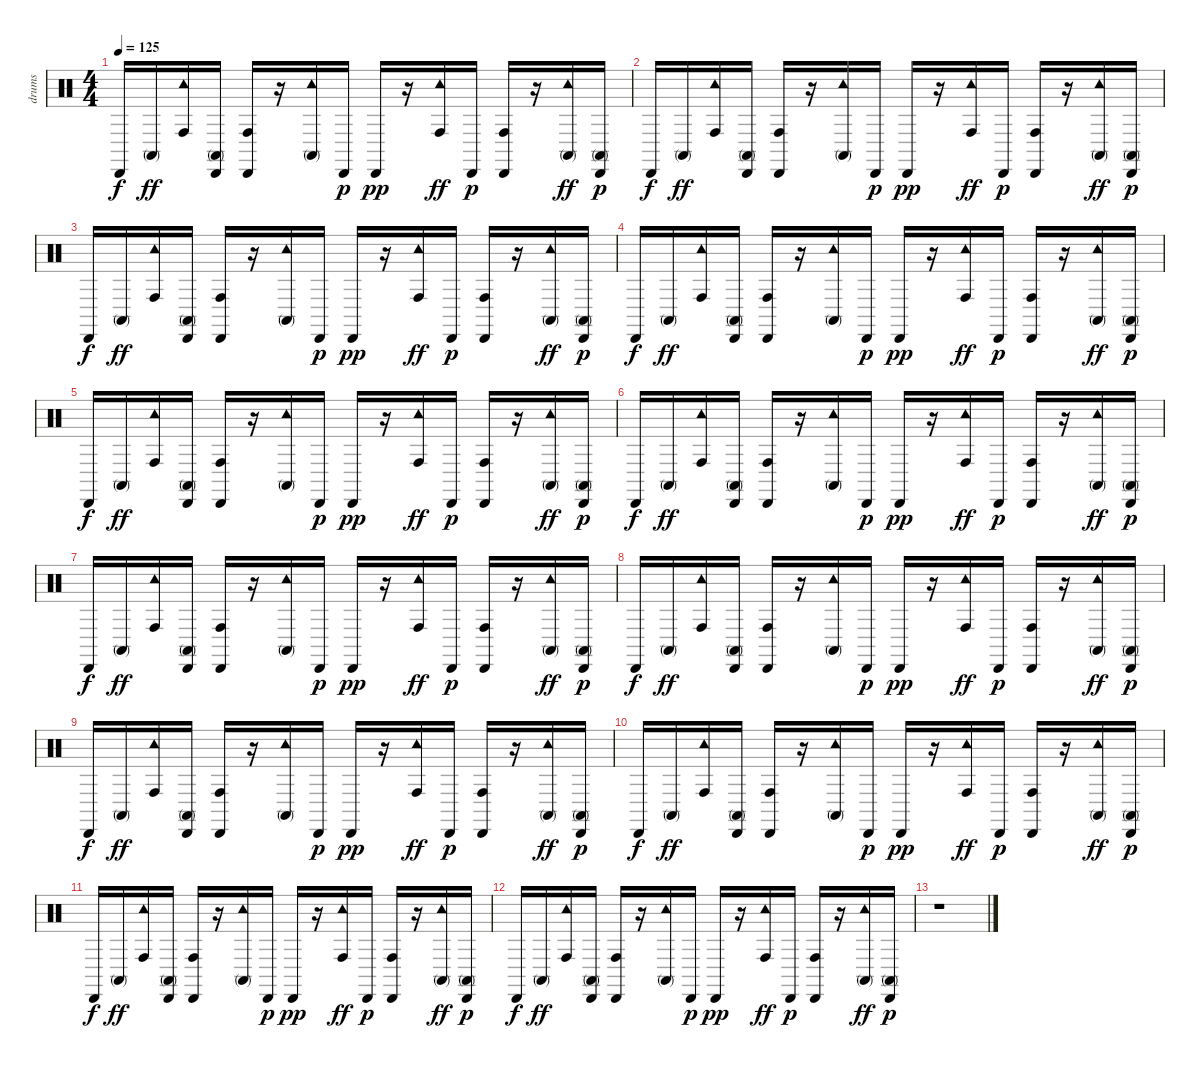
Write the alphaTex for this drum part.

\track ("drums" "drums") {instrument percussion}
\staff {score}
\articulation defaults
\ts (4 4)
\tempo 125
\clef neutral
\ks c "Cabasa (hit)".16{dy f} "Conga high (mute)".16{dy ff}
("Conga high (hit)" "Tambourine (hit)").16 ("Cabasa (hit)" "Conga high (mute)").16 ("Cabasa (hit)" "Conga high (hit)").16 r.16 ("Conga high (mute)" "Tambourine (hit)").16 "Cabasa (hit)".16{dy p} "Cabasa (hit)".16{dy pp} r.16 ("Conga high (hit)" "Tambourine (hit)").16{dy ff} "Cabasa (hit)".16{dy p} ("Conga high (hit)" "Cabasa (hit)").16 r.16 ("Conga high (mute)" "Tambourine (hit)").16{dy ff} ("Conga high (mute)" "Cabasa (hit)").16{dy p} |
"Cabasa (hit)".16{dy f} "Conga high (mute)".16{dy ff} ("Conga high (hit)" "Tambourine (hit)").16 ("Cabasa (hit)" "Conga high (mute)").16 ("Cabasa (hit)" "Conga high (hit)").16 r.16 ("Conga high (mute)" "Tambourine (hit)").16 "Cabasa (hit)".16{dy p} "Cabasa (hit)".16{dy pp} r.16 ("Conga high (hit)" "Tambourine (hit)").16{dy ff} "Cabasa (hit)".16{dy p} ("Conga high (hit)" "Cabasa (hit)").16 r.16 ("Conga high (mute)" "Tambourine (hit)").16{dy ff} ("Conga high (mute)" "Cabasa (hit)").16{dy p} |
"Cabasa (hit)".16{dy f} "Conga high (mute)".16{dy ff} ("Conga high (hit)" "Tambourine (hit)").16 ("Cabasa (hit)" "Conga high (mute)").16 ("Cabasa (hit)" "Conga high (hit)").16 r.16 ("Conga high (mute)" "Tambourine (hit)").16 "Cabasa (hit)".16{dy p} "Cabasa (hit)".16{dy pp} r.16 ("Conga high (hit)" "Tambourine (hit)").16{dy ff} "Cabasa (hit)".16{dy p} ("Conga high (hit)" "Cabasa (hit)").16 r.16 ("Conga high (mute)" "Tambourine (hit)").16{dy ff} ("Conga high (mute)" "Cabasa (hit)").16{dy p} |
"Cabasa (hit)".16{dy f} "Conga high (mute)".16{dy ff} ("Conga high (hit)" "Tambourine (hit)").16 ("Cabasa (hit)" "Conga high (mute)").16 ("Cabasa (hit)" "Conga high (hit)").16 r.16 ("Conga high (mute)" "Tambourine (hit)").16 "Cabasa (hit)".16{dy p} "Cabasa (hit)".16{dy pp} r.16 ("Conga high (hit)" "Tambourine (hit)").16{dy ff} "Cabasa (hit)".16{dy p} ("Conga high (hit)" "Cabasa (hit)").16 r.16 ("Conga high (mute)" "Tambourine (hit)").16{dy ff} ("Conga high (mute)" "Cabasa (hit)").16{dy p} |
"Cabasa (hit)".16{dy f} "Conga high (mute)".16{dy ff} ("Conga high (hit)" "Tambourine (hit)").16 ("Cabasa (hit)" "Conga high (mute)").16 ("Cabasa (hit)" "Conga high (hit)").16 r.16 ("Conga high (mute)" "Tambourine (hit)").16 "Cabasa (hit)".16{dy p} "Cabasa (hit)".16{dy pp} r.16 ("Conga high (hit)" "Tambourine (hit)").16{dy ff} "Cabasa (hit)".16{dy p} ("Conga high (hit)" "Cabasa (hit)").16 r.16 ("Conga high (mute)" "Tambourine (hit)").16{dy ff} ("Conga high (mute)" "Cabasa (hit)").16{dy p} |
"Cabasa (hit)".16{dy f} "Conga high (mute)".16{dy ff} ("Conga high (hit)" "Tambourine (hit)").16 ("Cabasa (hit)" "Conga high (mute)").16 ("Cabasa (hit)" "Conga high (hit)").16 r.16 ("Conga high (mute)" "Tambourine (hit)").16 "Cabasa (hit)".16{dy p} "Cabasa (hit)".16{dy pp} r.16 ("Conga high (hit)" "Tambourine (hit)").16{dy ff} "Cabasa (hit)".16{dy p} ("Conga high (hit)" "Cabasa (hit)").16 r.16 ("Conga high (mute)" "Tambourine (hit)").16{dy ff} ("Conga high (mute)" "Cabasa (hit)").16{dy p} |
"Cabasa (hit)".16{dy f} "Conga high (mute)".16{dy ff} ("Conga high (hit)" "Tambourine (hit)").16 ("Cabasa (hit)" "Conga high (mute)").16 ("Cabasa (hit)" "Conga high (hit)").16 r.16 ("Conga high (mute)" "Tambourine (hit)").16 "Cabasa (hit)".16{dy p} "Cabasa (hit)".16{dy pp} r.16 ("Conga high (hit)" "Tambourine (hit)").16{dy ff} "Cabasa (hit)".16{dy p} ("Conga high (hit)" "Cabasa (hit)").16 r.16 ("Conga high (mute)" "Tambourine (hit)").16{dy ff} ("Conga high (mute)" "Cabasa (hit)").16{dy p} |
"Cabasa (hit)".16{dy f} "Conga high (mute)".16{dy ff} ("Conga high (hit)" "Tambourine (hit)").16 ("Cabasa (hit)" "Conga high (mute)").16 ("Cabasa (hit)" "Conga high (hit)").16 r.16 ("Conga high (mute)" "Tambourine (hit)").16 "Cabasa (hit)".16{dy p} "Cabasa (hit)".16{dy pp} r.16 ("Conga high (hit)" "Tambourine (hit)").16{dy ff} "Cabasa (hit)".16{dy p} ("Conga high (hit)" "Cabasa (hit)").16 r.16 ("Conga high (mute)" "Tambourine (hit)").16{dy ff} ("Conga high (mute)" "Cabasa (hit)").16{dy p} |
"Cabasa (hit)".16{dy f} "Conga high (mute)".16{dy ff} ("Conga high (hit)" "Tambourine (hit)").16 ("Cabasa (hit)" "Conga high (mute)").16 ("Cabasa (hit)" "Conga high (hit)").16 r.16 ("Conga high (mute)" "Tambourine (hit)").16 "Cabasa (hit)".16{dy p} "Cabasa (hit)".16{dy pp} r.16 ("Conga high (hit)" "Tambourine (hit)").16{dy ff} "Cabasa (hit)".16{dy p} ("Conga high (hit)" "Cabasa (hit)").16 r.16 ("Conga high (mute)" "Tambourine (hit)").16{dy ff} ("Conga high (mute)" "Cabasa (hit)").16{dy p} |
"Cabasa (hit)".16{dy f} "Conga high (mute)".16{dy ff} ("Conga high (hit)" "Tambourine (hit)").16 ("Cabasa (hit)" "Conga high (mute)").16 ("Cabasa (hit)" "Conga high (hit)").16 r.16 ("Conga high (mute)" "Tambourine (hit)").16 "Cabasa (hit)".16{dy p} "Cabasa (hit)".16{dy pp} r.16 ("Conga high (hit)" "Tambourine (hit)").16{dy ff} "Cabasa (hit)".16{dy p} ("Conga high (hit)" "Cabasa (hit)").16 r.16 ("Conga high (mute)" "Tambourine (hit)").16{dy ff} ("Conga high (mute)" "Cabasa (hit)").16{dy p} |
"Cabasa (hit)".16{dy f} "Conga high (mute)".16{dy ff} ("Conga high (hit)" "Tambourine (hit)").16 ("Cabasa (hit)" "Conga high (mute)").16 ("Cabasa (hit)" "Conga high (hit)").16 r.16 ("Conga high (mute)" "Tambourine (hit)").16 "Cabasa (hit)".16{dy p} "Cabasa (hit)".16{dy pp} r.16 ("Conga high (hit)" "Tambourine (hit)").16{dy ff} "Cabasa (hit)".16{dy p} ("Conga high (hit)" "Cabasa (hit)").16 r.16 ("Conga high (mute)" "Tambourine (hit)").16{dy ff} ("Conga high (mute)" "Cabasa (hit)").16{dy p} |
"Cabasa (hit)".16{dy f} "Conga high (mute)".16{dy ff} ("Conga high (hit)" "Tambourine (hit)").16 ("Cabasa (hit)" "Conga high (mute)").16 ("Cabasa (hit)" "Conga high (hit)").16 r.16 ("Conga high (mute)" "Tambourine (hit)").16 "Cabasa (hit)".16{dy p} "Cabasa (hit)".16{dy pp} r.16 ("Conga high (hit)" "Tambourine (hit)").16{dy ff} "Cabasa (hit)".16{dy p} ("Conga high (hit)" "Cabasa (hit)").16 r.16 ("Conga high (mute)" "Tambourine (hit)").16{dy ff} ("Conga high (mute)" "Cabasa (hit)").16{dy p} |
r.1
